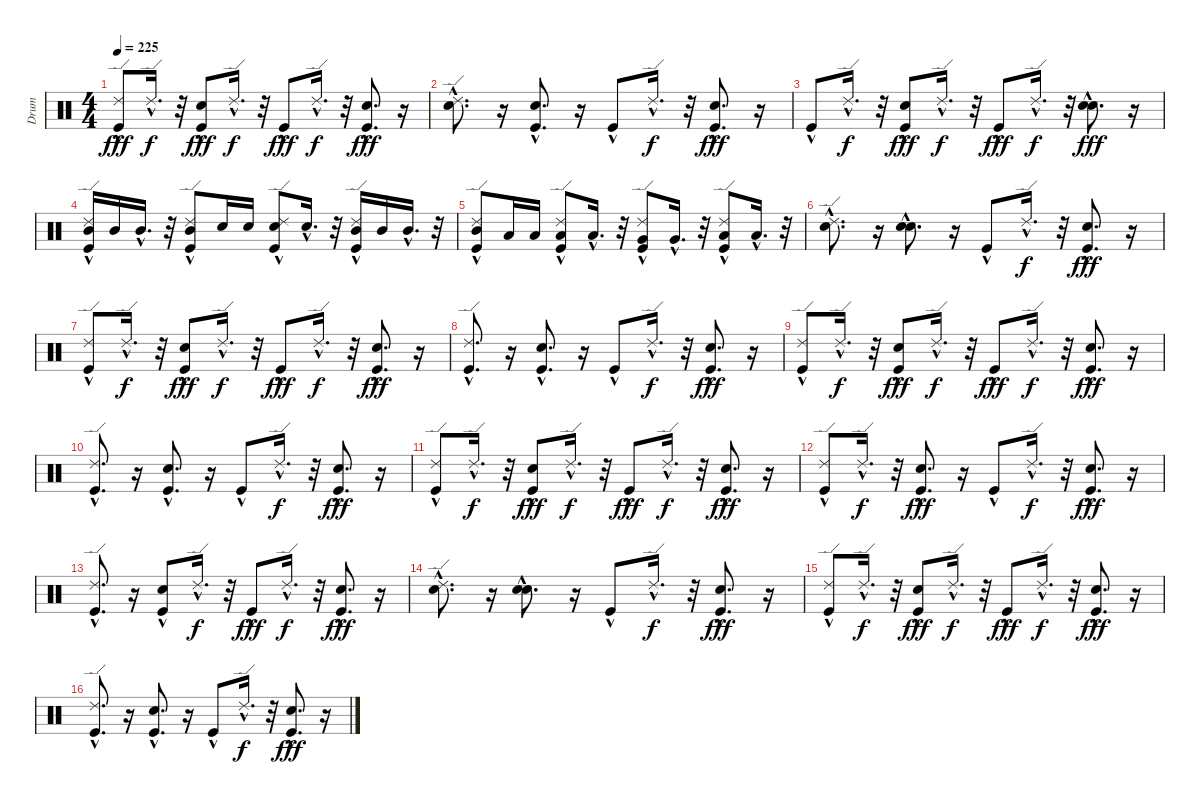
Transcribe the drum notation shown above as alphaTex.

\track ("Drum" "Drum") {instrument percussion}
\staff {score}
\articulation defaults
\ts (4 4)
\tempo 225
\clef neutral
\ks c
("Kick (hit)"{hac} "Ride (edge) 2"{hac}).8{dy fff} "Ride (edge) 2"{hac}.16{d dy f} r.32 ("Kick (hit)"{hac} "Electric Snare (hit)"{hac}).8{dy fff} "Ride (edge) 2"{hac}.16{d dy f} r.32 "Kick (hit)"{hac}.8{dy fff} "Ride (edge) 2"{hac}.16{d dy f} r.32 ("Kick (hit)"{hac} "Electric Snare (hit)"{hac}).8{d dy fff} r.16 |
("Snare (hit) 2"{hac} "Ride (edge) 2"{hac}).8{d} r.16 ("Kick (hit)"{hac} "Electric Snare (hit)"{hac}).8{d} r.16 "Kick (hit)"{hac}.8 "Ride (edge) 2"{hac}.16{d dy f} r.32 ("Kick (hit)"{hac} "Electric Snare (hit)"{hac}).8{d dy fff} r.16 |
"Kick (hit)"{hac}.8 "Ride (edge) 2"{hac}.16{d dy f} r.32 ("Kick (hit)"{hac} "Electric Snare (hit)"{hac}).8{dy fff} "Ride (edge) 2"{hac}.16{d dy f} r.32 "Kick (hit)"{hac}.8{dy fff} "Ride (edge) 2"{hac}.16{d dy f} r.32 ("Snare (hit) 2"{hac} "Electric Snare (hit)"{hac}).8{d dy fff} r.16 |
("Kick (hit)"{hac} "Mid Tom (hit)" "Ride (edge) 2"{hac}).16 "Mid Tom (hit)".16 "Mid Tom (hit)"{hac}.16{d} r.32 ("Kick (hit)"{hac} "Mid Tom (hit)"{hac} "Ride (edge) 2"{hac}).8 "Electric Snare (hit)".16 "Electric Snare (hit)".16 ("Kick (hit)"{hac} "Electric Snare (hit)"{hac} "Ride (edge) 2"{hac}).8 "Electric Snare (hit)"{hac}.16{d} r.32 ("Kick (hit)"{hac} "Mid Tom (hit)" "Ride (edge) 2"{hac}).16 "Mid Tom (hit)".16 "Mid Tom (hit)"{hac}.16{d} r.32 |
("Kick (hit)"{hac} "Mid Tom (hit)"{hac} "Ride (edge) 2"{hac}).8 "Low Tom (hit)".16 "Low Tom (hit)".16 ("Kick (hit)"{hac} "Low Tom (hit)"{hac} "Ride (edge) 2"{hac}).8 "Low Tom (hit)"{hac}.16{d} r.32 ("Kick (hit)"{hac} "Very Low Tom (hit)"{hac} "Ride (edge) 2"{hac}).8 "Very Low Tom (hit)"{hac}.16{d} r.32 ("Kick (hit)"{hac} "Low Floor Tom (hit)"{hac} "Ride (edge) 2"{hac}).8 "Low Floor Tom (hit)"{hac}.16{d} r.32 |
("Snare (hit) 2"{hac} "Ride (edge) 2"{hac}).8{d} r.16 ("Snare (hit) 2"{hac} "Electric Snare (hit)"{hac}).8{d} r.16 "Kick (hit)"{hac}.8 "Ride (edge) 2"{hac}.16{d dy f} r.32 ("Kick (hit)"{hac} "Electric Snare (hit)"{hac}).8{d dy fff} r.16 |
("Kick (hit)"{hac} "Ride (edge) 2"{hac}).8 "Ride (edge) 2"{hac}.16{d dy f} r.32 ("Kick (hit)"{hac} "Electric Snare (hit)"{hac}).8{dy fff} "Ride (edge) 2"{hac}.16{d dy f} r.32 "Kick (hit)"{hac}.8{dy fff} "Ride (edge) 2"{hac}.16{d dy f} r.32 ("Kick (hit)"{hac} "Electric Snare (hit)"{hac}).8{d dy fff} r.16 |
("Kick (hit)"{hac} "Ride (edge) 2"{hac}).8{d} r.16 ("Kick (hit)"{hac} "Electric Snare (hit)"{hac}).8{d} r.16 "Kick (hit)"{hac}.8 "Ride (edge) 2"{hac}.16{d dy f} r.32 ("Kick (hit)"{hac} "Electric Snare (hit)"{hac}).8{d dy fff} r.16 |
("Kick (hit)"{hac} "Ride (edge) 2"{hac}).8 "Ride (edge) 2"{hac}.16{d dy f} r.32 ("Kick (hit)"{hac} "Electric Snare (hit)"{hac}).8{dy fff} "Ride (edge) 2"{hac}.16{d dy f} r.32 "Kick (hit)"{hac}.8{dy fff} "Ride (edge) 2"{hac}.16{d dy f} r.32 ("Kick (hit)"{hac} "Electric Snare (hit)"{hac}).8{d dy fff} r.16 |
("Kick (hit)"{hac} "Ride (edge) 2"{hac}).8{d} r.16 ("Kick (hit)"{hac} "Electric Snare (hit)"{hac}).8{d} r.16 "Kick (hit)"{hac}.8 "Ride (edge) 2"{hac}.16{d dy f} r.32 ("Kick (hit)"{hac} "Electric Snare (hit)"{hac}).8{d dy fff} r.16 |
("Kick (hit)"{hac} "Ride (edge) 2"{hac}).8 "Ride (edge) 2"{hac}.16{d dy f} r.32 ("Kick (hit)"{hac} "Electric Snare (hit)"{hac}).8{dy fff} "Ride (edge) 2"{hac}.16{d dy f} r.32 "Kick (hit)"{hac}.8{dy fff} "Ride (edge) 2"{hac}.16{d dy f} r.32 ("Kick (hit)"{hac} "Electric Snare (hit)"{hac}).8{d dy fff} r.16 |
("Kick (hit)"{hac} "Ride (edge) 2"{hac}).8 "Ride (edge) 2"{hac}.16{d dy f} r.32 ("Kick (hit)"{hac} "Electric Snare (hit)"{hac}).8{d dy fff} r.16 "Kick (hit)"{hac}.8 "Ride (edge) 2"{hac}.16{d dy f} r.32 ("Kick (hit)"{hac} "Electric Snare (hit)"{hac}).8{d dy fff} r.16 |
("Kick (hit)"{hac} "Ride (edge) 2"{hac}).8{d} r.16 ("Kick (hit)"{hac} "Electric Snare (hit)"{hac}).8 "Ride (edge) 2"{hac}.16{d dy f} r.32 "Kick (hit)"{hac}.8{dy fff} "Ride (edge) 2"{hac}.16{d dy f} r.32 ("Kick (hit)"{hac} "Electric Snare (hit)"{hac}).8{d dy fff} r.16 |
("Snare (hit) 2"{hac} "Ride (edge) 2"{hac}).8{d} r.16 ("Snare (hit) 2"{hac} "Electric Snare (hit)"{hac}).8{d} r.16 "Kick (hit)"{hac}.8 "Ride (edge) 2"{hac}.16{d dy f} r.32 ("Kick (hit)"{hac} "Electric Snare (hit)"{hac}).8{d dy fff} r.16 |
("Kick (hit)"{hac} "Ride (edge) 2"{hac}).8 "Ride (edge) 2"{hac}.16{d dy f} r.32 ("Kick (hit)"{hac} "Electric Snare (hit)"{hac}).8{dy fff} "Ride (edge) 2"{hac}.16{d dy f} r.32 "Kick (hit)"{hac}.8{dy fff} "Ride (edge) 2"{hac}.16{d dy f} r.32 ("Kick (hit)"{hac} "Electric Snare (hit)"{hac}).8{d dy fff} r.16 |
("Kick (hit)"{hac} "Ride (edge) 2"{hac}).8{d} r.16 ("Kick (hit)"{hac} "Electric Snare (hit)"{hac}).8{d} r.16 "Kick (hit)"{hac}.8 "Ride (edge) 2"{hac}.16{d dy f} r.32 ("Kick (hit)"{hac} "Electric Snare (hit)"{hac}).8{d dy fff} r.16
